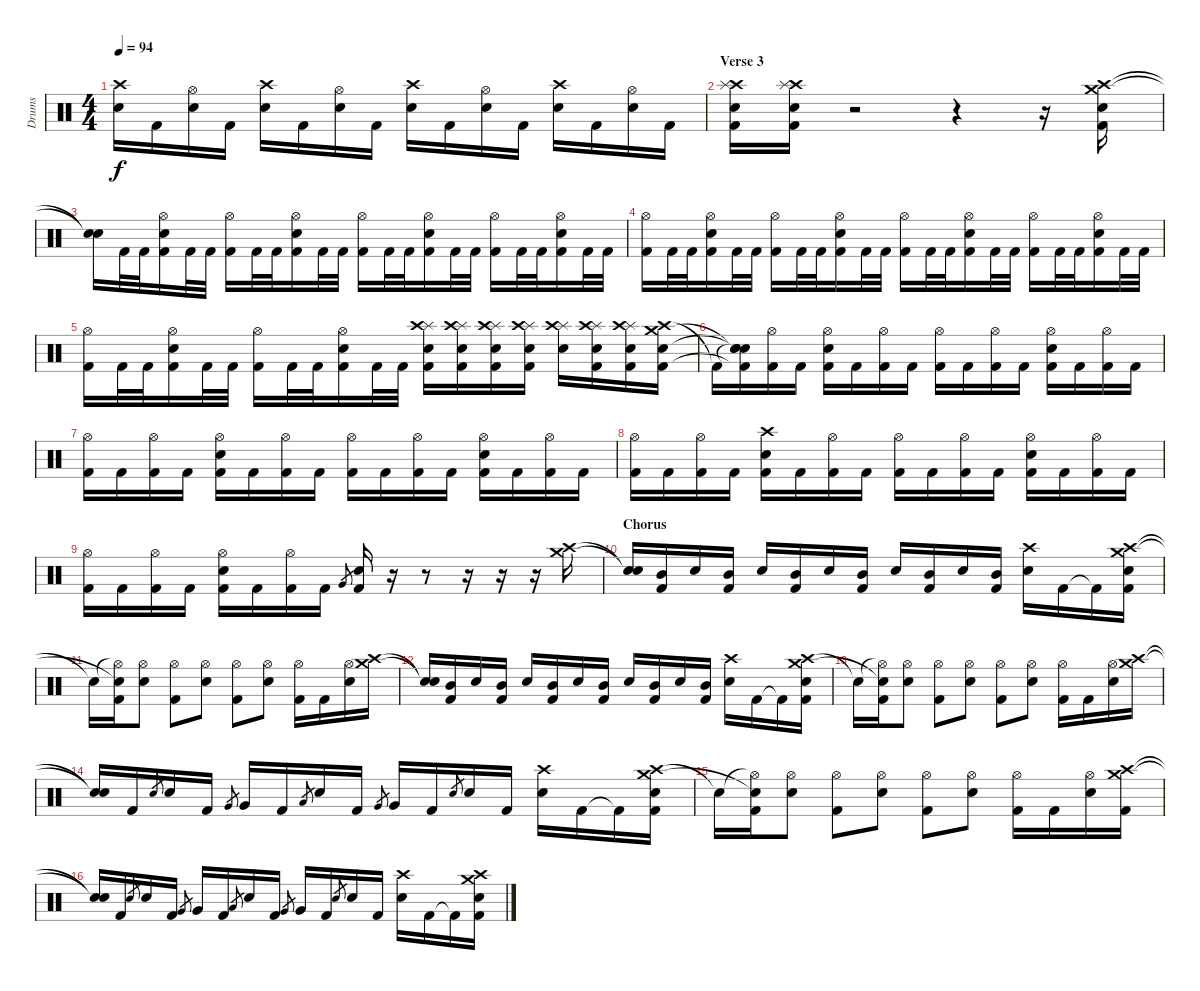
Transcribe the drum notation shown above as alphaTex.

\track ("Drums" "Drums") {instrument percussion}
\staff {score}
\articulation defaults
\ts (4 4)
\tempo 94
\clef neutral
\ks c
("Crash high (hit)" "Electric Snare (hit)").16{dy f} "Kick (hit) 2".16 ("Hi-Hat (open)" "Electric Snare (hit)").16 "Kick (hit) 2".16 ("Crash high (hit)" "Electric Snare (hit)").16 "Kick (hit) 2".16 ("Hi-Hat (open)" "Electric Snare (hit)").16 "Kick (hit) 2".16 ("Crash high (hit)" "Electric Snare (hit)").16 "Kick (hit) 2".16 ("Hi-Hat (open)" "Electric Snare (hit)").16 "Kick (hit) 2".16 ("Crash high (hit)" "Electric Snare (hit)").16 "Kick (hit) 2".16 ("Hi-Hat (open)" "Electric Snare (hit)").16 "Kick (hit) 2".16 |
\section ("" "Verse 3")
("Crash high (hit)" "Splash (hit)" "Electric Snare (hit)" "Kick (hit) 2").16 ("Crash high (hit)" "Splash (hit)" "Electric Snare (hit)" "Kick (hit) 2").16 r.2 r.4 r.16 ("Crash high (hit)" "Crash medium (hit)" "Electric Snare (hit)" "Kick (hit) 2").16 |
("Snare (hit)"{t} "Snare (hit)"{t}).16 "Kick (hit) 2".32 "Kick (hit) 2".32 ("Hi-Hat (open)" "Electric Snare (hit)" "Kick (hit) 2").16 "Kick (hit) 2".32 "Kick (hit) 2".32 ("Hi-Hat (open)" "Kick (hit) 2").16 "Kick (hit) 2".32 "Kick (hit) 2".32 ("Hi-Hat (open)" "Electric Snare (hit)" "Kick (hit) 2").16 "Kick (hit) 2".32 "Kick (hit) 2".32 ("Hi-Hat (open)" "Kick (hit) 2").16 "Kick (hit) 2".32 "Kick (hit) 2".32 ("Hi-Hat (open)" "Electric Snare (hit)" "Kick (hit) 2").16 "Kick (hit) 2".32 "Kick (hit) 2".32 ("Hi-Hat (open)" "Kick (hit) 2").16 "Kick (hit) 2".32 "Kick (hit) 2".32 ("Hi-Hat (open)" "Electric Snare (hit)" "Kick (hit) 2").16 "Kick (hit) 2".32 "Kick (hit) 2".32 |
("Hi-Hat (open)" "Kick (hit) 2").16 "Kick (hit) 2".32 "Kick (hit) 2".32 ("Hi-Hat (open)" "Electric Snare (hit)" "Kick (hit) 2").16 "Kick (hit) 2".32 "Kick (hit) 2".32 ("Hi-Hat (open)" "Kick (hit) 2").16 "Kick (hit) 2".32 "Kick (hit) 2".32 ("Hi-Hat (open)" "Electric Snare (hit)" "Kick (hit) 2").16 "Kick (hit) 2".32 "Kick (hit) 2".32 ("Hi-Hat (open)" "Kick (hit) 2").16 "Kick (hit) 2".32 "Kick (hit) 2".32 ("Hi-Hat (open)" "Electric Snare (hit)" "Kick (hit) 2").16 "Kick (hit) 2".32 "Kick (hit) 2".32 ("Hi-Hat (open)" "Kick (hit) 2").16 "Kick (hit) 2".32 "Kick (hit) 2".32 ("Hi-Hat (open)" "Electric Snare (hit)" "Kick (hit) 2").16 "Kick (hit) 2".32 "Kick (hit) 2".32 |
("Hi-Hat (open)" "Kick (hit) 2").16 "Kick (hit) 2".32 "Kick (hit) 2".32 ("Hi-Hat (open)" "Electric Snare (hit)" "Kick (hit) 2").16 "Kick (hit) 2".32 "Kick (hit) 2".32 ("Hi-Hat (open)" "Kick (hit) 2").16 "Kick (hit) 2".32 "Kick (hit) 2".32 ("Hi-Hat (open)" "Electric Snare (hit)" "Kick (hit) 2").16 "Kick (hit) 2".32 "Kick (hit) 2".32 ("Splash (hit)" "Electric Snare (hit)" "Crash high (hit)" "Kick (hit) 2").16 ("Splash (hit)" "Electric Snare (hit)" "Crash high (hit)" "Kick (hit) 2").16 ("Splash (hit)" "Electric Snare (hit)" "Crash high (hit)" "Kick (hit) 2").16 ("Splash (hit)" "Electric Snare (hit)" "Crash high (hit)" "Kick (hit) 2").16 ("Splash (hit)" "Electric Snare (hit)" "Crash high (hit)").16 ("Splash (hit)" "Electric Snare (hit)" "Crash high (hit)" "Kick (hit) 2").16 ("Splash (hit)" "Electric Snare (hit)" "Crash high (hit)" "Kick (hit) 2").16 ("Crash high (hit)" "Electric Snare (hit)" "Crash medium (hit)" "Kick (hit) 2").16 |
"Kick (hit) 2"{t}.16 ("Snare (hit)"{t} "Snare (hit)"{t} "Snare (hit)"{t} "Kick (hit) 2"{t}).16 ("Hi-Hat (open)" "Kick (hit) 2").16 "Kick (hit) 2".16 ("Hi-Hat (open)" "Electric Snare (hit)" "Kick (hit) 2").16 "Kick (hit) 2".16 ("Hi-Hat (open)" "Kick (hit) 2").16 "Kick (hit) 2".16 ("Hi-Hat (open)" "Kick (hit) 2").16 "Kick (hit) 2".16 ("Hi-Hat (open)" "Kick (hit) 2").16 "Kick (hit) 2".16 ("Hi-Hat (open)" "Electric Snare (hit)" "Kick (hit) 2").16 "Kick (hit) 2".16 ("Hi-Hat (open)" "Kick (hit) 2").16 "Kick (hit) 2".16 |
("Hi-Hat (open)" "Kick (hit) 2").16 "Kick (hit) 2".16 ("Hi-Hat (open)" "Kick (hit) 2").16 "Kick (hit) 2".16 ("Hi-Hat (open)" "Electric Snare (hit)" "Kick (hit) 2").16 "Kick (hit) 2".16 ("Hi-Hat (open)" "Kick (hit) 2").16 "Kick (hit) 2".16 ("Hi-Hat (open)" "Kick (hit) 2").16 "Kick (hit) 2".16 ("Hi-Hat (open)" "Kick (hit) 2").16 "Kick (hit) 2".16 ("Hi-Hat (open)" "Electric Snare (hit)" "Kick (hit) 2").16 "Kick (hit) 2".16 ("Hi-Hat (open)" "Kick (hit) 2").16 "Kick (hit) 2".16 |
("Hi-Hat (open)" "Kick (hit) 2").16 "Kick (hit) 2".16 ("Hi-Hat (open)" "Kick (hit) 2").16 "Kick (hit) 2".16 ("Crash high (hit)" "Electric Snare (hit)" "Kick (hit) 2").16 "Kick (hit) 2".16 ("Hi-Hat (open)" "Kick (hit) 2").16 "Kick (hit) 2".16 ("Hi-Hat (open)" "Kick (hit) 2").16 "Kick (hit) 2".16 ("Hi-Hat (open)" "Kick (hit) 2").16 "Kick (hit) 2".16 ("Hi-Hat (open)" "Electric Snare (hit)" "Kick (hit) 2").16 "Kick (hit) 2".16 ("Hi-Hat (open)" "Kick (hit) 2").16 "Kick (hit) 2".16 |
("Hi-Hat (open)" "Kick (hit) 2").16 "Kick (hit) 2".16 ("Hi-Hat (open)" "Kick (hit) 2").16 "Kick (hit) 2".16 ("Hi-Hat (open)" "Electric Snare (hit)" "Kick (hit) 2").16 "Kick (hit) 2".16 ("Hi-Hat (open)" "Kick (hit) 2").16 "Kick (hit) 2".16 "Very Low Tom (hit)".8{gr} ("Electric Snare (hit)" "Kick (hit) 2").16 r.16 r.8 r.16 r.16 r.16 ("Crash high (hit)" "Crash medium (hit)").16 |
\section ("" "Chorus")
("Snare (hit)"{t} "Snare (hit)"{t}).16 ("Mid Tom (hit)" "Kick (hit) 2").16 "Electric Snare (hit)".16 ("Mid Tom (hit)" "Kick (hit) 2").16 "Electric Snare (hit)".16 ("Mid Tom (hit)" "Kick (hit) 2").16 "Electric Snare (hit)".16 ("Mid Tom (hit)" "Kick (hit) 2").16 "Electric Snare (hit)".16 ("Mid Tom (hit)" "Kick (hit) 2").16 "Electric Snare (hit)".16 ("Mid Tom (hit)" "Kick (hit) 2").16 ("Crash high (hit)" "Electric Snare (hit)").16 "Kick (hit) 2".16 "Kick (hit) 2"{t}.16 ("Crash high (hit)" "Crash medium (hit)" "Electric Snare (hit)" "Kick (hit) 2").16 |
"Snare (hit)"{t}.16 ("Hi-Hat (open)"{t} "Snare (hit)"{t} "Kick (hit) 2").16 ("Hi-Hat (open)" "Electric Snare (hit)").8 ("Hi-Hat (open)" "Kick (hit) 2").8 ("Hi-Hat (open)" "Electric Snare (hit)").8 ("Hi-Hat (open)" "Kick (hit) 2").8 ("Hi-Hat (open)" "Electric Snare (hit)").8 ("Hi-Hat (open)" "Kick (hit) 2").16 "Kick (hit) 2".16 ("Hi-Hat (open)" "Electric Snare (hit)").16 ("Crash high (hit)" "Crash medium (hit)").16 |
("Snare (hit)"{t} "Snare (hit)"{t}).16 ("Mid Tom (hit)" "Kick (hit) 2").16 "Electric Snare (hit)".16 ("Mid Tom (hit)" "Kick (hit) 2").16 "Electric Snare (hit)".16 ("Mid Tom (hit)" "Kick (hit) 2").16 "Electric Snare (hit)".16 ("Mid Tom (hit)" "Kick (hit) 2").16 "Electric Snare (hit)".16 ("Mid Tom (hit)" "Kick (hit) 2").16 "Electric Snare (hit)".16 ("Mid Tom (hit)" "Kick (hit) 2").16 ("Crash high (hit)" "Electric Snare (hit)").16 "Kick (hit) 2".16 "Kick (hit) 2"{t}.16 ("Crash high (hit)" "Crash medium (hit)" "Electric Snare (hit)" "Kick (hit) 2").16 |
"Snare (hit)"{t}.16 ("Hi-Hat (open)"{t} "Snare (hit)"{t} "Kick (hit) 2").16 ("Hi-Hat (open)" "Electric Snare (hit)").8 ("Hi-Hat (open)" "Kick (hit) 2").8 ("Hi-Hat (open)" "Electric Snare (hit)").8 ("Hi-Hat (open)" "Kick (hit) 2").8 ("Hi-Hat (open)" "Electric Snare (hit)").8 ("Hi-Hat (open)" "Kick (hit) 2").16 "Kick (hit) 2".16 ("Hi-Hat (open)" "Electric Snare (hit)").16 ("Crash high (hit)" "Crash medium (hit)").16 |
("Snare (hit)"{t} "Snare (hit)"{t}).16 "Kick (hit) 2".16 "Electric Snare (hit)".8{gr} "Electric Snare (hit)".16 "Kick (hit) 2".16 "Very Low Tom (hit)".8{gr} "Very Low Tom (hit)".16 "Kick (hit) 2".16 "Low Tom (hit)".8{gr} "Electric Snare (hit)".16 "Kick (hit) 2".16 "Very Low Tom (hit)".8{gr} "Very Low Tom (hit)".16 "Kick (hit) 2".16 "Electric Snare (hit)".8{gr} "Electric Snare (hit)".16 "Kick (hit) 2".16 ("Crash high (hit)" "Electric Snare (hit)").16 "Kick (hit) 2".16 "Kick (hit) 2"{t}.16 ("Crash high (hit)" "Crash medium (hit)" "Electric Snare (hit)" "Kick (hit) 2").16 |
"Snare (hit)"{t}.16 ("Hi-Hat (open)"{t} "Snare (hit)"{t} "Kick (hit) 2").16 ("Hi-Hat (open)" "Electric Snare (hit)").8 ("Hi-Hat (open)" "Kick (hit) 2").8 ("Hi-Hat (open)" "Electric Snare (hit)").8 ("Hi-Hat (open)" "Kick (hit) 2").8 ("Hi-Hat (open)" "Electric Snare (hit)").8 ("Hi-Hat (open)" "Kick (hit) 2").16 "Kick (hit) 2".16 ("Hi-Hat (open)" "Electric Snare (hit)").16 ("Crash high (hit)" "Crash medium (hit)" "Kick (hit) 2").16 |
("Snare (hit)"{t} "Snare (hit)"{t}).16 "Kick (hit) 2".16 "Electric Snare (hit)".8{gr} "Electric Snare (hit)".16 "Kick (hit) 2".16 "Very Low Tom (hit)".8{gr} "Very Low Tom (hit)".16 "Kick (hit) 2".16 "Low Tom (hit)".8{gr} "Electric Snare (hit)".16 "Kick (hit) 2".16 "Very Low Tom (hit)".8{gr} "Very Low Tom (hit)".16 "Kick (hit) 2".16 "Electric Snare (hit)".8{gr} "Electric Snare (hit)".16 "Kick (hit) 2".16 ("Crash high (hit)" "Electric Snare (hit)").16 "Kick (hit) 2".16 "Kick (hit) 2"{t}.16 ("Crash high (hit)" "Crash medium (hit)" "Electric Snare (hit)" "Kick (hit) 2").16
